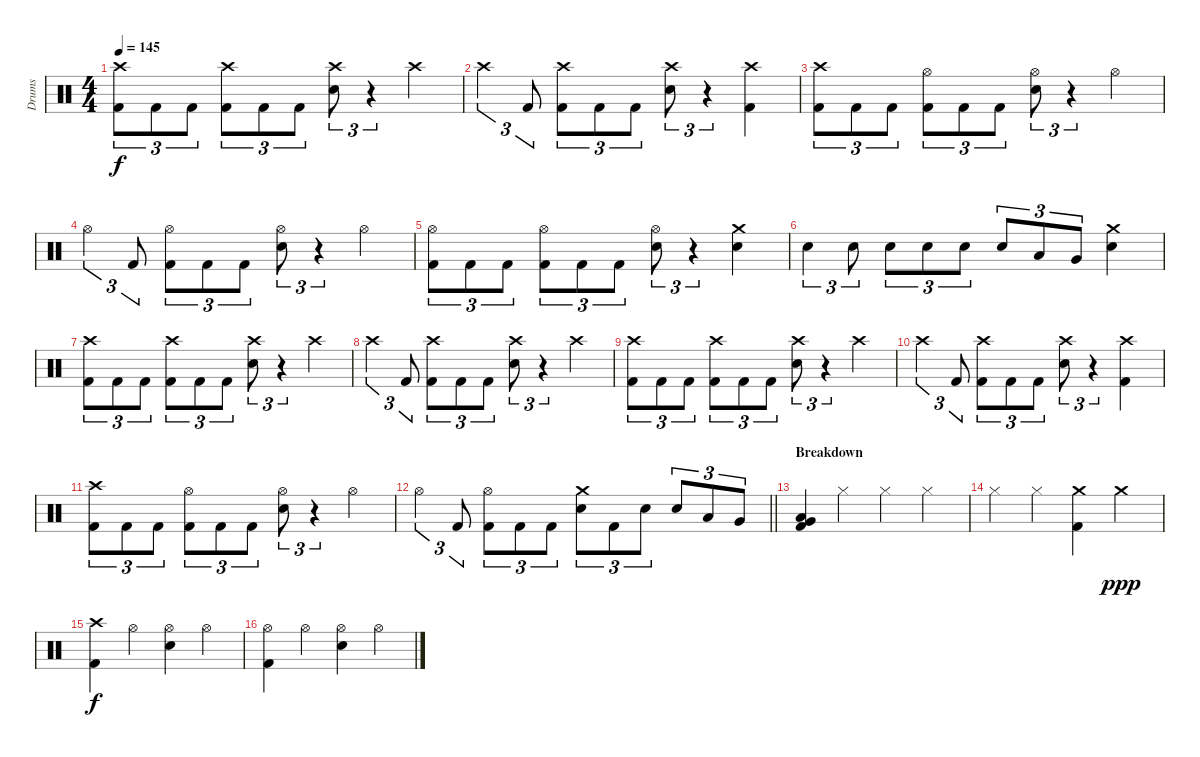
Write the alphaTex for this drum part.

\track ("Drums" "Drums") {instrument percussion}
\staff {score}
\articulation defaults
\ts (4 4)
\tempo 145
\clef neutral
\ks c
("Crash high (hit)" "Kick (hit) 2").8{tu (3 2) dy f} "Kick (hit) 2".8{tu (3 2)} "Kick (hit) 2".8{tu (3 2)} ("Crash high (hit)" "Kick (hit) 2").8{tu (3 2)} "Kick (hit) 2".8{tu (3 2)} "Kick (hit) 2".8{tu (3 2)} ("Crash high (hit)" "Electric Snare (hit)").8{tu (3 2)} r.4{tu (3 2)} "Crash high (hit)".4 |
"Crash high (hit)".4{tu (3 2)} "Kick (hit) 2".8{tu (3 2)} ("Crash high (hit)" "Kick (hit) 2").8{tu (3 2)} "Kick (hit) 2".8{tu (3 2)} "Kick (hit) 2".8{tu (3 2)} ("Crash high (hit)" "Electric Snare (hit)").8{tu (3 2)} r.4{tu (3 2)} ("Crash high (hit)" "Kick (hit) 2").4 |
("Crash high (hit)" "Kick (hit) 2").8{tu (3 2)} "Kick (hit) 2".8{tu (3 2)} "Kick (hit) 2".8{tu (3 2)} ("Hi-Hat (open)" "Kick (hit) 2").8{tu (3 2)} "Kick (hit) 2".8{tu (3 2)} "Kick (hit) 2".8{tu (3 2)} ("Hi-Hat (open)" "Electric Snare (hit)").8{tu (3 2)} r.4{tu (3 2)} "Hi-Hat (open)".4 |
"Hi-Hat (open)".4{tu (3 2)} "Kick (hit) 2".8{tu (3 2)} ("Hi-Hat (open)" "Kick (hit) 2").8{tu (3 2)} "Kick (hit) 2".8{tu (3 2)} "Kick (hit) 2".8{tu (3 2)} ("Hi-Hat (open)" "Electric Snare (hit)").8{tu (3 2)} r.4{tu (3 2)} "Hi-Hat (open)".4 |
("Hi-Hat (open)" "Kick (hit) 2").8{tu (3 2)} "Kick (hit) 2".8{tu (3 2)} "Kick (hit) 2".8{tu (3 2)} ("Hi-Hat (open)" "Kick (hit) 2").8{tu (3 2)} "Kick (hit) 2".8{tu (3 2)} "Kick (hit) 2".8{tu (3 2)} ("Hi-Hat (open)" "Electric Snare (hit)").8{tu (3 2)} r.4{tu (3 2)} ("Crash medium (hit)" "Electric Snare (hit)").4 |
"Electric Snare (hit)".4{tu (3 2)} "Electric Snare (hit)".8{tu (3 2)} "Electric Snare (hit)".8{tu (3 2)} "Electric Snare (hit)".8{tu (3 2)} "Electric Snare (hit)".8{tu (3 2)} "Electric Snare (hit)".8{tu (3 2)} "Low Tom (hit)".8{tu (3 2)} "Very Low Tom (hit)".8{tu (3 2)} ("Crash medium (hit)" "Electric Snare (hit)").4 |
("Crash high (hit)" "Kick (hit) 2").8{tu (3 2)} "Kick (hit) 2".8{tu (3 2)} "Kick (hit) 2".8{tu (3 2)} ("Crash high (hit)" "Kick (hit) 2").8{tu (3 2)} "Kick (hit) 2".8{tu (3 2)} "Kick (hit) 2".8{tu (3 2)} ("Crash high (hit)" "Electric Snare (hit)").8{tu (3 2)} r.4{tu (3 2)} "Crash high (hit)".4 |
"Crash high (hit)".4{tu (3 2)} "Kick (hit) 2".8{tu (3 2)} ("Crash high (hit)" "Kick (hit) 2").8{tu (3 2)} "Kick (hit) 2".8{tu (3 2)} "Kick (hit) 2".8{tu (3 2)} ("Crash high (hit)" "Electric Snare (hit)").8{tu (3 2)} r.4{tu (3 2)} "Crash high (hit)".4 |
("Crash high (hit)" "Kick (hit) 2").8{tu (3 2)} "Kick (hit) 2".8{tu (3 2)} "Kick (hit) 2".8{tu (3 2)} ("Crash high (hit)" "Kick (hit) 2").8{tu (3 2)} "Kick (hit) 2".8{tu (3 2)} "Kick (hit) 2".8{tu (3 2)} ("Crash high (hit)" "Electric Snare (hit)").8{tu (3 2)} r.4{tu (3 2)} "Crash high (hit)".4 |
"Crash high (hit)".4{tu (3 2)} "Kick (hit) 2".8{tu (3 2)} ("Crash high (hit)" "Kick (hit) 2").8{tu (3 2)} "Kick (hit) 2".8{tu (3 2)} "Kick (hit) 2".8{tu (3 2)} ("Crash high (hit)" "Electric Snare (hit)").8{tu (3 2)} r.4{tu (3 2)} ("Crash high (hit)" "Kick (hit) 2").4 |
("Crash high (hit)" "Kick (hit) 2").8{tu (3 2)} "Kick (hit) 2".8{tu (3 2)} "Kick (hit) 2".8{tu (3 2)} ("Hi-Hat (open)" "Kick (hit) 2").8{tu (3 2)} "Kick (hit) 2".8{tu (3 2)} "Kick (hit) 2".8{tu (3 2)} ("Hi-Hat (open)" "Electric Snare (hit)").8{tu (3 2)} r.4{tu (3 2)} "Hi-Hat (open)".4 |
\barLineRight lightlight "Hi-Hat (open)".4{tu (3 2)} "Kick (hit) 2".8{tu (3 2)}
("Hi-Hat (open)" "Kick (hit) 2").8{tu (3 2)} "Kick (hit) 2".8{tu (3 2)} "Kick (hit) 2".8{tu (3 2)} ("Crash medium (hit)" "Electric Snare (hit)").8{tu (3 2)} "Kick (hit) 2".8{tu (3 2)} "Electric Snare (hit)".8{tu (3 2)} "Electric Snare (hit)".8{tu (3 2)} "Low Tom (hit)".8{tu (3 2)} "Very Low Tom (hit)".8{tu (3 2)} |
\section ("" "Breakdown")
("Low Tom (hit)" "Very Low Tom (hit)" "Kick (hit) 2").4 "Hi-Hat (closed)".4 "Hi-Hat (closed)".4 "Hi-Hat (closed)".4 |
"Hi-Hat (closed)".4 "Hi-Hat (closed)".4 ("Crash medium (hit)" "Kick (hit) 2").4 "Crash medium (hit)".4{dy ppp} |
("Crash high (hit)" "Kick (hit) 2").4{dy f} "Hi-Hat (open)".4 ("Hi-Hat (open)" "Electric Snare (hit)").4 "Hi-Hat (open)".4 |
("Hi-Hat (open)" "Kick (hit) 2").4 "Hi-Hat (open)".4 ("Hi-Hat (open)" "Electric Snare (hit)").4 "Hi-Hat (open)".4
